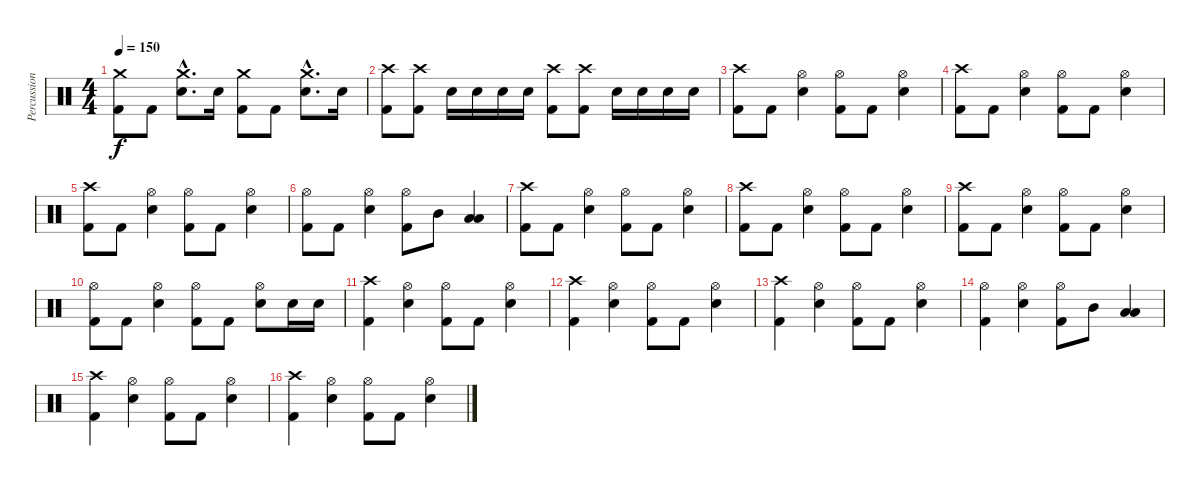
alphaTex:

\track ("Percussion" "Percussion") {instrument percussion}
\staff {score}
\articulation defaults
\ts (4 4)
\tempo 150
\clef neutral
\ks c
("Crash medium (hit)" "Kick (hit) 2").8{dy f} "Kick (hit) 2".8 ("Crash medium (hit)"{hac} "Snare (hit) 2"{hac}).8{d} "Snare (hit) 2".16 ("Crash medium (hit)" "Kick (hit) 2").8 "Kick (hit) 2".8 ("Crash medium (hit)"{hac} "Snare (hit) 2"{hac}).8{d} "Snare (hit) 2".16 |
("Crash high (hit)" "Kick (hit) 2").8 ("Crash high (hit)" "Kick (hit) 2").8 "Snare (hit) 2".16 "Snare (hit) 2".16 "Snare (hit) 2".16 "Snare (hit) 2".16 ("Crash high (hit)" "Kick (hit) 2").8 ("Crash high (hit)" "Kick (hit) 2").8 "Snare (hit) 2".16 "Snare (hit) 2".16 "Snare (hit) 2".16 "Snare (hit) 2".16 |
("Crash high (hit)" "Kick (hit) 2").8 "Kick (hit) 2".8 ("Hi-Hat (open)" "Snare (hit) 2").4 ("Hi-Hat (open)" "Kick (hit) 2").8 "Kick (hit) 2".8 ("Hi-Hat (open)" "Snare (hit) 2").4 |
("Crash high (hit)" "Kick (hit) 2").8 "Kick (hit) 2".8 ("Hi-Hat (open)" "Snare (hit) 2").4 ("Hi-Hat (open)" "Kick (hit) 2").8 "Kick (hit) 2".8 ("Hi-Hat (open)" "Snare (hit) 2").4 |
("Crash high (hit)" "Kick (hit) 2").8 "Kick (hit) 2".8 ("Hi-Hat (open)" "Snare (hit) 2").4 ("Hi-Hat (open)" "Kick (hit) 2").8 "Kick (hit) 2".8 ("Hi-Hat (open)" "Snare (hit) 2").4 |
("Hi-Hat (open)" "Kick (hit) 2").8 "Kick (hit) 2".8 ("Hi-Hat (open)" "Snare (hit) 2").4 ("Hi-Hat (open)" "Kick (hit) 2").8 "Mid Tom (hit)".8 ("Low Tom (hit)" "Low Floor Tom (hit)").4 |
("Crash high (hit)" "Kick (hit) 2").8 "Kick (hit) 2".8 ("Hi-Hat (open)" "Snare (hit) 2").4 ("Hi-Hat (open)" "Kick (hit) 2").8 "Kick (hit) 2".8 ("Hi-Hat (open)" "Snare (hit) 2").4 |
("Crash high (hit)" "Kick (hit) 2").8 "Kick (hit) 2".8 ("Hi-Hat (open)" "Snare (hit) 2").4 ("Hi-Hat (open)" "Kick (hit) 2").8 "Kick (hit) 2".8 ("Hi-Hat (open)" "Snare (hit) 2").4 |
("Crash high (hit)" "Kick (hit) 2").8 "Kick (hit) 2".8 ("Hi-Hat (open)" "Snare (hit) 2").4 ("Hi-Hat (open)" "Kick (hit) 2").8 "Kick (hit) 2".8 ("Hi-Hat (open)" "Snare (hit) 2").4 |
("Hi-Hat (open)" "Kick (hit) 2").8 "Kick (hit) 2".8 ("Hi-Hat (open)" "Snare (hit) 2").4 ("Hi-Hat (open)" "Kick (hit) 2").8 "Kick (hit) 2".8 ("Hi-Hat (open)" "Snare (hit) 2").8 "Snare (hit) 2".16 "Snare (hit) 2".16 |
("Crash high (hit)" "Kick (hit) 2").4 ("Hi-Hat (open)" "Snare (hit) 2").4 ("Hi-Hat (open)" "Kick (hit) 2").8 "Kick (hit) 2".8 ("Hi-Hat (open)" "Snare (hit) 2").4 |
("Crash high (hit)" "Kick (hit) 2").4 ("Hi-Hat (open)" "Snare (hit) 2").4 ("Hi-Hat (open)" "Kick (hit) 2").8 "Kick (hit) 2".8 ("Hi-Hat (open)" "Snare (hit) 2").4 |
("Crash high (hit)" "Kick (hit) 2").4 ("Hi-Hat (open)" "Snare (hit) 2").4 ("Hi-Hat (open)" "Kick (hit) 2").8 "Kick (hit) 2".8 ("Hi-Hat (open)" "Snare (hit) 2").4 |
("Hi-Hat (open)" "Kick (hit) 2").4 ("Hi-Hat (open)" "Snare (hit) 2").4 ("Hi-Hat (open)" "Kick (hit) 2").8 "Mid Tom (hit)".8 ("Low Tom (hit)" "Low Floor Tom (hit)").4 |
("Crash high (hit)" "Kick (hit) 2").4 ("Hi-Hat (open)" "Snare (hit) 2").4 ("Hi-Hat (open)" "Kick (hit) 2").8 "Kick (hit) 2".8 ("Hi-Hat (open)" "Snare (hit) 2").4 |
("Crash high (hit)" "Kick (hit) 2").4 ("Hi-Hat (open)" "Snare (hit) 2").4 ("Hi-Hat (open)" "Kick (hit) 2").8 "Kick (hit) 2".8 ("Hi-Hat (open)" "Snare (hit) 2").4
